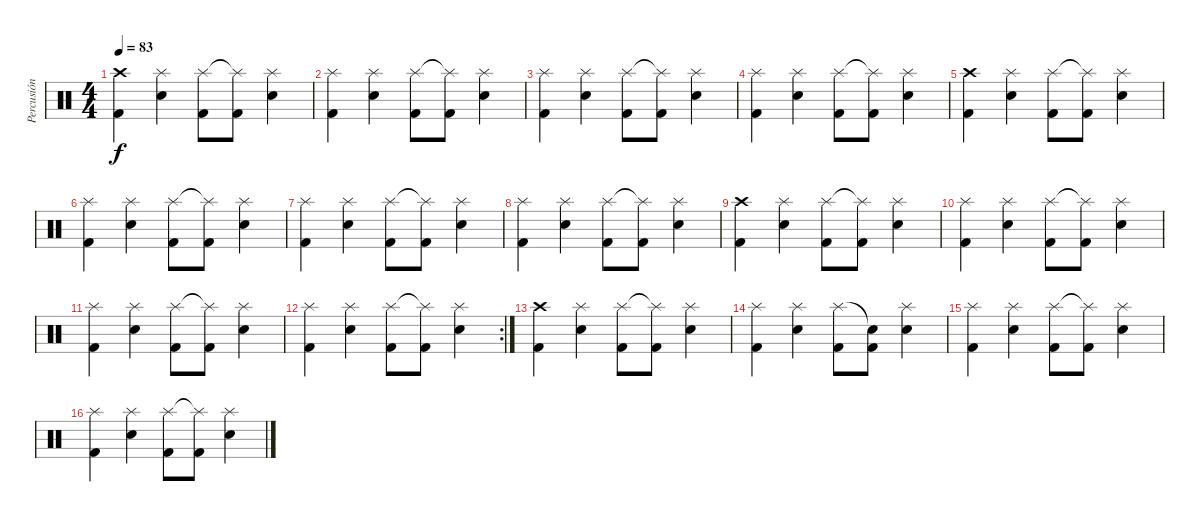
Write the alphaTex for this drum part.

\track ("Percusión" "Percusión") {instrument percussion}
\staff {score}
\articulation defaults
\ts (4 4)
\tempo 83
\clef neutral
\ks c
("Crash high (hit)" "Kick (hit) 2").4{dy f} ("Splash (hit)" "Snare (hit) 2").4 ("Splash (hit)" "Kick (hit) 2").8 ("Splash (hit)"{t} "Kick (hit) 2").8 ("Splash (hit)" "Snare (hit) 2").4 |
("Splash (hit)" "Kick (hit) 2").4 ("Splash (hit)" "Snare (hit) 2").4 ("Splash (hit)" "Kick (hit) 2").8 ("Splash (hit)"{t} "Kick (hit) 2").8 ("Splash (hit)" "Snare (hit) 2").4 |
("Splash (hit)" "Kick (hit) 2").4 ("Splash (hit)" "Snare (hit) 2").4 ("Splash (hit)" "Kick (hit) 2").8 ("Splash (hit)"{t} "Kick (hit) 2").8 ("Splash (hit)" "Snare (hit) 2").4 |
("Splash (hit)" "Kick (hit) 2").4 ("Splash (hit)" "Snare (hit) 2").4 ("Splash (hit)" "Kick (hit) 2").8 ("Splash (hit)"{t} "Kick (hit) 2").8 ("Splash (hit)" "Snare (hit) 2").4 |
("Crash high (hit)" "Kick (hit) 2").4 ("Splash (hit)" "Snare (hit) 2").4 ("Splash (hit)" "Kick (hit) 2").8 ("Splash (hit)"{t} "Kick (hit) 2").8 ("Splash (hit)" "Snare (hit) 2").4 |
("Splash (hit)" "Kick (hit) 2").4 ("Splash (hit)" "Snare (hit) 2").4 ("Splash (hit)" "Kick (hit) 2").8 ("Splash (hit)"{t} "Kick (hit) 2").8 ("Splash (hit)" "Snare (hit) 2").4 |
("Splash (hit)" "Kick (hit) 2").4 ("Splash (hit)" "Snare (hit) 2").4 ("Splash (hit)" "Kick (hit) 2").8 ("Splash (hit)"{t} "Kick (hit) 2").8 ("Splash (hit)" "Snare (hit) 2").4 |
("Splash (hit)" "Kick (hit) 2").4 ("Splash (hit)" "Snare (hit) 2").4 ("Splash (hit)" "Kick (hit) 2").8 ("Splash (hit)"{t} "Kick (hit) 2").8 ("Splash (hit)" "Snare (hit) 2").4 |
("Crash high (hit)" "Kick (hit) 2").4 ("Splash (hit)" "Snare (hit) 2").4 ("Splash (hit)" "Kick (hit) 2").8 ("Splash (hit)"{t} "Kick (hit) 2").8 ("Splash (hit)" "Snare (hit) 2").4 |
("Splash (hit)" "Kick (hit) 2").4 ("Splash (hit)" "Snare (hit) 2").4 ("Splash (hit)" "Kick (hit) 2").8 ("Splash (hit)"{t} "Kick (hit) 2").8 ("Splash (hit)" "Snare (hit) 2").4 |
("Splash (hit)" "Kick (hit) 2").4 ("Splash (hit)" "Snare (hit) 2").4 ("Splash (hit)" "Kick (hit) 2").8 ("Splash (hit)"{t} "Kick (hit) 2").8 ("Splash (hit)" "Snare (hit) 2").4 |
\rc 2
("Splash (hit)" "Kick (hit) 2").4 ("Splash (hit)" "Snare (hit) 2").4 ("Splash (hit)" "Kick (hit) 2").8 ("Splash (hit)"{t} "Kick (hit) 2").8 ("Splash (hit)" "Snare (hit) 2").4 |
("Crash high (hit)" "Kick (hit) 2").4 ("Splash (hit)" "Snare (hit) 2").4 ("Splash (hit)" "Kick (hit) 2").8 ("Splash (hit)"{t} "Kick (hit) 2").8 ("Splash (hit)" "Snare (hit) 2").4 |
("Splash (hit)" "Kick (hit) 2").4 ("Splash (hit)" "Snare (hit) 2").4 ("Splash (hit)" "Kick (hit) 2").8 ("Snare (hit)"{t} "Kick (hit) 2").8 ("Splash (hit)" "Snare (hit) 2").4 |
("Splash (hit)" "Kick (hit) 2").4 ("Splash (hit)" "Snare (hit) 2").4 ("Splash (hit)" "Kick (hit) 2").8 ("Splash (hit)"{t} "Kick (hit) 2").8 ("Splash (hit)" "Snare (hit) 2").4 |
("Splash (hit)" "Kick (hit) 2").4 ("Splash (hit)" "Snare (hit) 2").4 ("Splash (hit)" "Kick (hit) 2").8 ("Splash (hit)"{t} "Kick (hit) 2").8 ("Splash (hit)" "Snare (hit) 2").4
